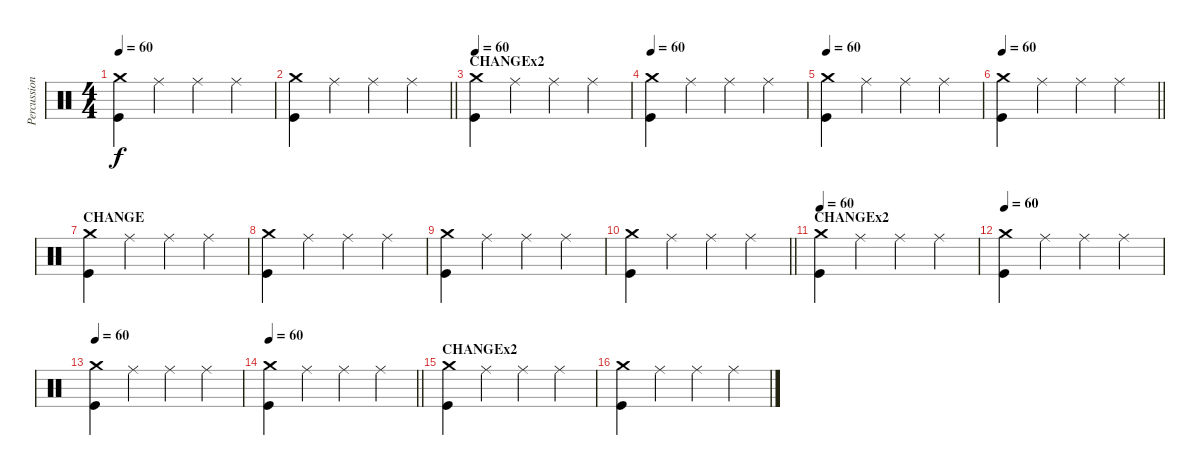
\track ("Percussions" "Percussion") {instrument percussion}
\staff {score}
\articulation defaults
\ts (4 4)
\tempo 60
\clef neutral
\ks c
("Crash medium (hit)" "Kick (hit)").4{dy f} "Ride (middle)".4 "Ride (middle)".4 "Ride (middle)".4 |
\barLineRight lightlight
("Crash medium (hit)" "Kick (hit)").4 "Ride (middle)".4 "Ride (middle)".4 "Ride (middle)".4 |
\section ("" "CHANGEx2")
\tempo 60
("Crash medium (hit)" "Kick (hit)").4{volume 16} "Ride (middle)".4 "Ride (middle)".4 "Ride (middle)".4 |
\tempo 60
("Crash medium (hit)" "Kick (hit)").4{volume 16} "Ride (middle)".4 "Ride (middle)".4 "Ride (middle)".4 |
\tempo 60
("Crash medium (hit)" "Kick (hit)").4{volume 16} "Ride (middle)".4 "Ride (middle)".4 "Ride (middle)".4 |
\tempo 60
\barLineRight lightlight
("Crash medium (hit)" "Kick (hit)").4{volume 16} "Ride (middle)".4 "Ride (middle)".4 "Ride (middle)".4 |
\section ("" "CHANGE")
("Crash medium (hit)" "Kick (hit)").4 "Ride (middle)".4 "Ride (middle)".4 "Ride (middle)".4 |
("Crash medium (hit)" "Kick (hit)").4 "Ride (middle)".4 "Ride (middle)".4 "Ride (middle)".4 |
("Crash medium (hit)" "Kick (hit)").4 "Ride (middle)".4 "Ride (middle)".4 "Ride (middle)".4 |
\barLineRight lightlight
("Crash medium (hit)" "Kick (hit)").4 "Ride (middle)".4 "Ride (middle)".4 "Ride (middle)".4 |
\section ("" "CHANGEx2")
\tempo 60
("Crash medium (hit)" "Kick (hit)").4{volume 16} "Ride (middle)".4 "Ride (middle)".4 "Ride (middle)".4 |
\tempo 60
("Crash medium (hit)" "Kick (hit)").4{volume 16} "Ride (middle)".4 "Ride (middle)".4 "Ride (middle)".4 |
\tempo 60
("Crash medium (hit)" "Kick (hit)").4{volume 16} "Ride (middle)".4 "Ride (middle)".4 "Ride (middle)".4 |
\tempo 60
\barLineRight lightlight
("Crash medium (hit)" "Kick (hit)").4{volume 16} "Ride (middle)".4 "Ride (middle)".4 "Ride (middle)".4 |
\section ("" "CHANGEx2")
("Crash medium (hit)" "Kick (hit)").4 "Ride (middle)".4 "Ride (middle)".4 "Ride (middle)".4 |
("Crash medium (hit)" "Kick (hit)").4 "Ride (middle)".4 "Ride (middle)".4 "Ride (middle)".4
